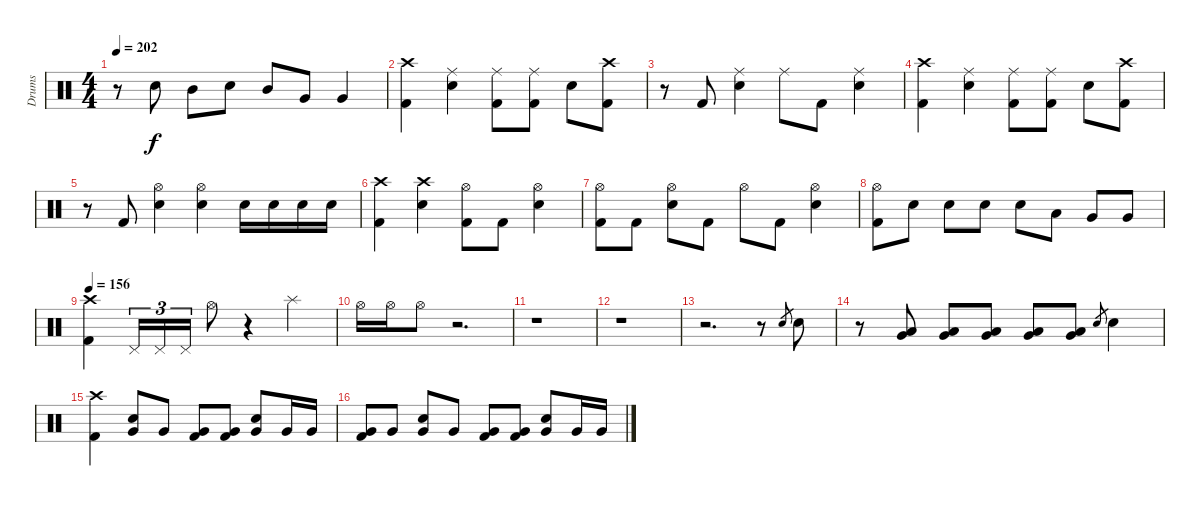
\track ("Drums" "Drums") {instrument percussion}
\staff {score}
\articulation defaults
\ts (4 4)
\tempo 202
\clef neutral
\ks c
r.8{dy f} "Electric Snare (hit)".8 "Mid Tom (hit)".8 "Electric Snare (hit)".8 "Mid Tom (hit)".8 "Very Low Tom (hit)".8 "Very Low Tom (hit)".4 |
("Crash high (hit)" "Kick (hit) 2").4 ("Ride (middle)" "Electric Snare (hit)").4 ("Ride (middle)" "Kick (hit) 2").8 ("Ride (middle)" "Kick (hit) 2").8 "Electric Snare (hit)".8 ("Crash high (hit)" "Kick (hit) 2").8 |
r.8 "Kick (hit) 2".8 ("Ride (middle)" "Electric Snare (hit)").4 "Ride (middle)".8 "Kick (hit) 2".8 ("Ride (middle)" "Electric Snare (hit)").4 |
("Crash high (hit)" "Kick (hit) 2").4 ("Ride (middle)" "Electric Snare (hit)").4 ("Ride (middle)" "Kick (hit) 2").8 ("Ride (middle)" "Kick (hit) 2").8 "Electric Snare (hit)".8 ("Crash high (hit)" "Kick (hit) 2").8 |
r.8 "Kick (hit) 2".8 ("Hi-Hat (open)" "Electric Snare (hit)").4 ("Hi-Hat (open)" "Electric Snare (hit)").4 "Electric Snare (hit)".16 "Electric Snare (hit)".16 "Electric Snare (hit)".16 "Electric Snare (hit)".16 |
("Crash high (hit)" "Kick (hit) 2").4 ("Crash high (hit)" "Electric Snare (hit)").4 ("Hi-Hat (open)" "Kick (hit) 2").8 "Kick (hit) 2".8 ("Hi-Hat (open)" "Electric Snare (hit)").4 |
("Hi-Hat (open)" "Kick (hit) 2").8 "Kick (hit) 2".8 ("Hi-Hat (open)" "Electric Snare (hit)").8 "Kick (hit) 2".8 "Hi-Hat (open)".8 "Kick (hit) 2".8 ("Hi-Hat (open)" "Electric Snare (hit)").4 |
("Hi-Hat (open)" "Kick (hit) 2").8 "Electric Snare (hit)".8 "Electric Snare (hit)".8 "Electric Snare (hit)".8 "Electric Snare (hit)".8 "Low Tom (hit)".8 "Very Low Tom (hit)".8 "Very Low Tom (hit)".8 |
\tempo 156
("Crash high (hit)" "Kick (hit) 2").4 "Pedal Hi-Hat (hit)".16{tu (3 2)} "Pedal Hi-Hat (hit)".16{tu (3 2)} "Pedal Hi-Hat (hit)".16{tu (3 2)} "Hi-Hat (open)".8 r.4 "Splash (hit)".4 |
"Hi-Hat (open)".16 "Hi-Hat (open)".16 "Hi-Hat (open)".8 r.2{d} |
r.1 |
r.1 |
r.2{d} r.8 "Electric Snare (hit)".8{gr} "Electric Snare (hit)".8 |
r.8 ("Low Tom (hit)" "Very Low Tom (hit)").8 ("Low Tom (hit)" "Very Low Tom (hit)").8 ("Low Tom (hit)" "Very Low Tom (hit)").8 ("Low Tom (hit)" "Very Low Tom (hit)").8 ("Low Tom (hit)" "Very Low Tom (hit)").8 "Electric Snare (hit)".8{gr} "Electric Snare (hit)".4 |
("Crash high (hit)" "Kick (hit) 2").4 ("Very Low Tom (hit)" "Electric Snare (hit)").8 "Very Low Tom (hit)".8 ("Very Low Tom (hit)" "Kick (hit) 2").8 ("Very Low Tom (hit)" "Kick (hit) 2").8 ("Very Low Tom (hit)" "Electric Snare (hit)").8 "Very Low Tom (hit)".16 "Very Low Tom (hit)".16 |
("Very Low Tom (hit)" "Kick (hit) 2").8 "Very Low Tom (hit)".8 ("Very Low Tom (hit)" "Electric Snare (hit)").8 "Very Low Tom (hit)".8 ("Very Low Tom (hit)" "Kick (hit) 2").8 ("Very Low Tom (hit)" "Kick (hit) 2").8 ("Very Low Tom (hit)" "Electric Snare (hit)").8 "Very Low Tom (hit)".16 "Very Low Tom (hit)".16
